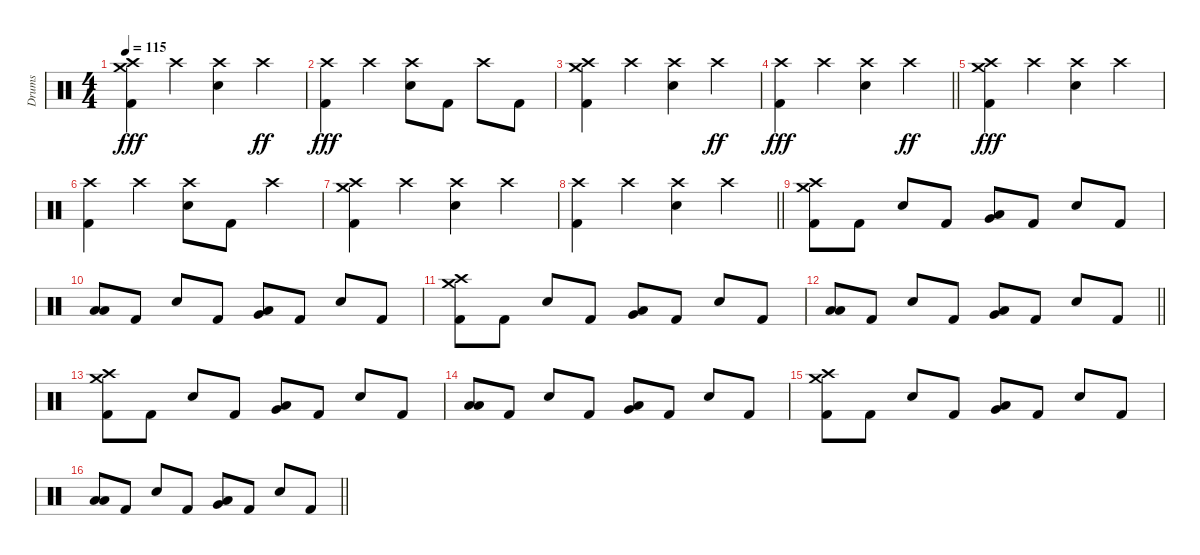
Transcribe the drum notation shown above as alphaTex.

\track ("Drums" "Drums") {instrument percussion}
\staff {score}
\articulation defaults
\ts (4 4)
\tempo 115
\clef neutral
\ks c
("Crash medium (hit)" "Crash high (hit)" "Kick (hit) 2").4{dy fff} "Crash high (hit)".4 ("Crash high (hit)" "Electric Snare (hit)").4 "Crash high (hit)".4{dy ff} |
("Crash high (hit)" "Kick (hit) 2").4{dy fff} "Crash high (hit)".4 ("Crash high (hit)" "Electric Snare (hit)").8 "Kick (hit) 2".8 "Crash high (hit)".8 "Kick (hit) 2".8 |
("Crash medium (hit)" "Crash high (hit)" "Kick (hit) 2").4 "Crash high (hit)".4 ("Crash high (hit)" "Electric Snare (hit)").4 "Crash high (hit)".4{dy ff} |
\barLineRight lightlight
("Crash high (hit)" "Kick (hit) 2").4{dy fff} "Crash high (hit)".4 ("Crash high (hit)" "Electric Snare (hit)").4 "Crash high (hit)".4{dy ff} |
("Crash medium (hit)" "Crash high (hit)" "Kick (hit) 2").4{dy fff} "Crash high (hit)".4 ("Crash high (hit)" "Electric Snare (hit)").4 "Crash high (hit)".4 |
("Crash high (hit)" "Kick (hit) 2").4 "Crash high (hit)".4 ("Crash high (hit)" "Electric Snare (hit)").8 "Kick (hit) 2".8 "Crash high (hit)".4 |
("Crash medium (hit)" "Crash high (hit)" "Kick (hit) 2").4 "Crash high (hit)".4 ("Crash high (hit)" "Electric Snare (hit)").4 "Crash high (hit)".4 |
\barLineRight lightlight
("Crash high (hit)" "Kick (hit) 2").4 "Crash high (hit)".4 ("Crash high (hit)" "Electric Snare (hit)").4 "Crash high (hit)".4 |
("Crash medium (hit)" "Crash high (hit)" "Kick (hit) 2").8 "Kick (hit) 2".8 "Electric Snare (hit)".8 "Kick (hit) 2".8 ("Low Tom (hit)" "Very Low Tom (hit)").8 "Kick (hit) 2".8 "Electric Snare (hit)".8 "Kick (hit) 2".8 |
("Low Tom (hit)" "Low Floor Tom (hit)").8 "Kick (hit) 2".8 "Electric Snare (hit)".8 "Kick (hit) 2".8 ("Very Low Tom (hit)" "Low Floor Tom (hit)").8 "Kick (hit) 2".8 "Electric Snare (hit)".8 "Kick (hit) 2".8 |
("Crash medium (hit)" "Crash high (hit)" "Kick (hit) 2").8 "Kick (hit) 2".8 "Electric Snare (hit)".8 "Kick (hit) 2".8 ("Very Low Tom (hit)" "Low Floor Tom (hit)").8 "Kick (hit) 2".8 "Electric Snare (hit)".8 "Kick (hit) 2".8 |
\barLineRight lightlight
("Low Tom (hit)" "Low Floor Tom (hit)").8 "Kick (hit) 2".8 "Electric Snare (hit)".8 "Kick (hit) 2".8 ("Low Tom (hit)" "Very Low Tom (hit)").8 "Kick (hit) 2".8 "Electric Snare (hit)".8 "Kick (hit) 2".8 |
("Crash medium (hit)" "Crash high (hit)" "Kick (hit) 2").8 "Kick (hit) 2".8 "Electric Snare (hit)".8 "Kick (hit) 2".8 ("Low Tom (hit)" "Very Low Tom (hit)").8 "Kick (hit) 2".8 "Electric Snare (hit)".8 "Kick (hit) 2".8 |
("Low Tom (hit)" "Low Floor Tom (hit)").8 "Kick (hit) 2".8 "Electric Snare (hit)".8 "Kick (hit) 2".8 ("Very Low Tom (hit)" "Low Floor Tom (hit)").8 "Kick (hit) 2".8 "Electric Snare (hit)".8 "Kick (hit) 2".8 |
("Crash medium (hit)" "Crash high (hit)" "Kick (hit) 2").8 "Kick (hit) 2".8 "Electric Snare (hit)".8 "Kick (hit) 2".8 ("Very Low Tom (hit)" "Low Floor Tom (hit)").8 "Kick (hit) 2".8 "Electric Snare (hit)".8 "Kick (hit) 2".8 |
\barLineRight lightlight
("Low Tom (hit)" "Low Floor Tom (hit)").8 "Kick (hit) 2".8 "Electric Snare (hit)".8 "Kick (hit) 2".8 ("Low Tom (hit)" "Very Low Tom (hit)").8 "Kick (hit) 2".8 "Electric Snare (hit)".8 "Kick (hit) 2".8
